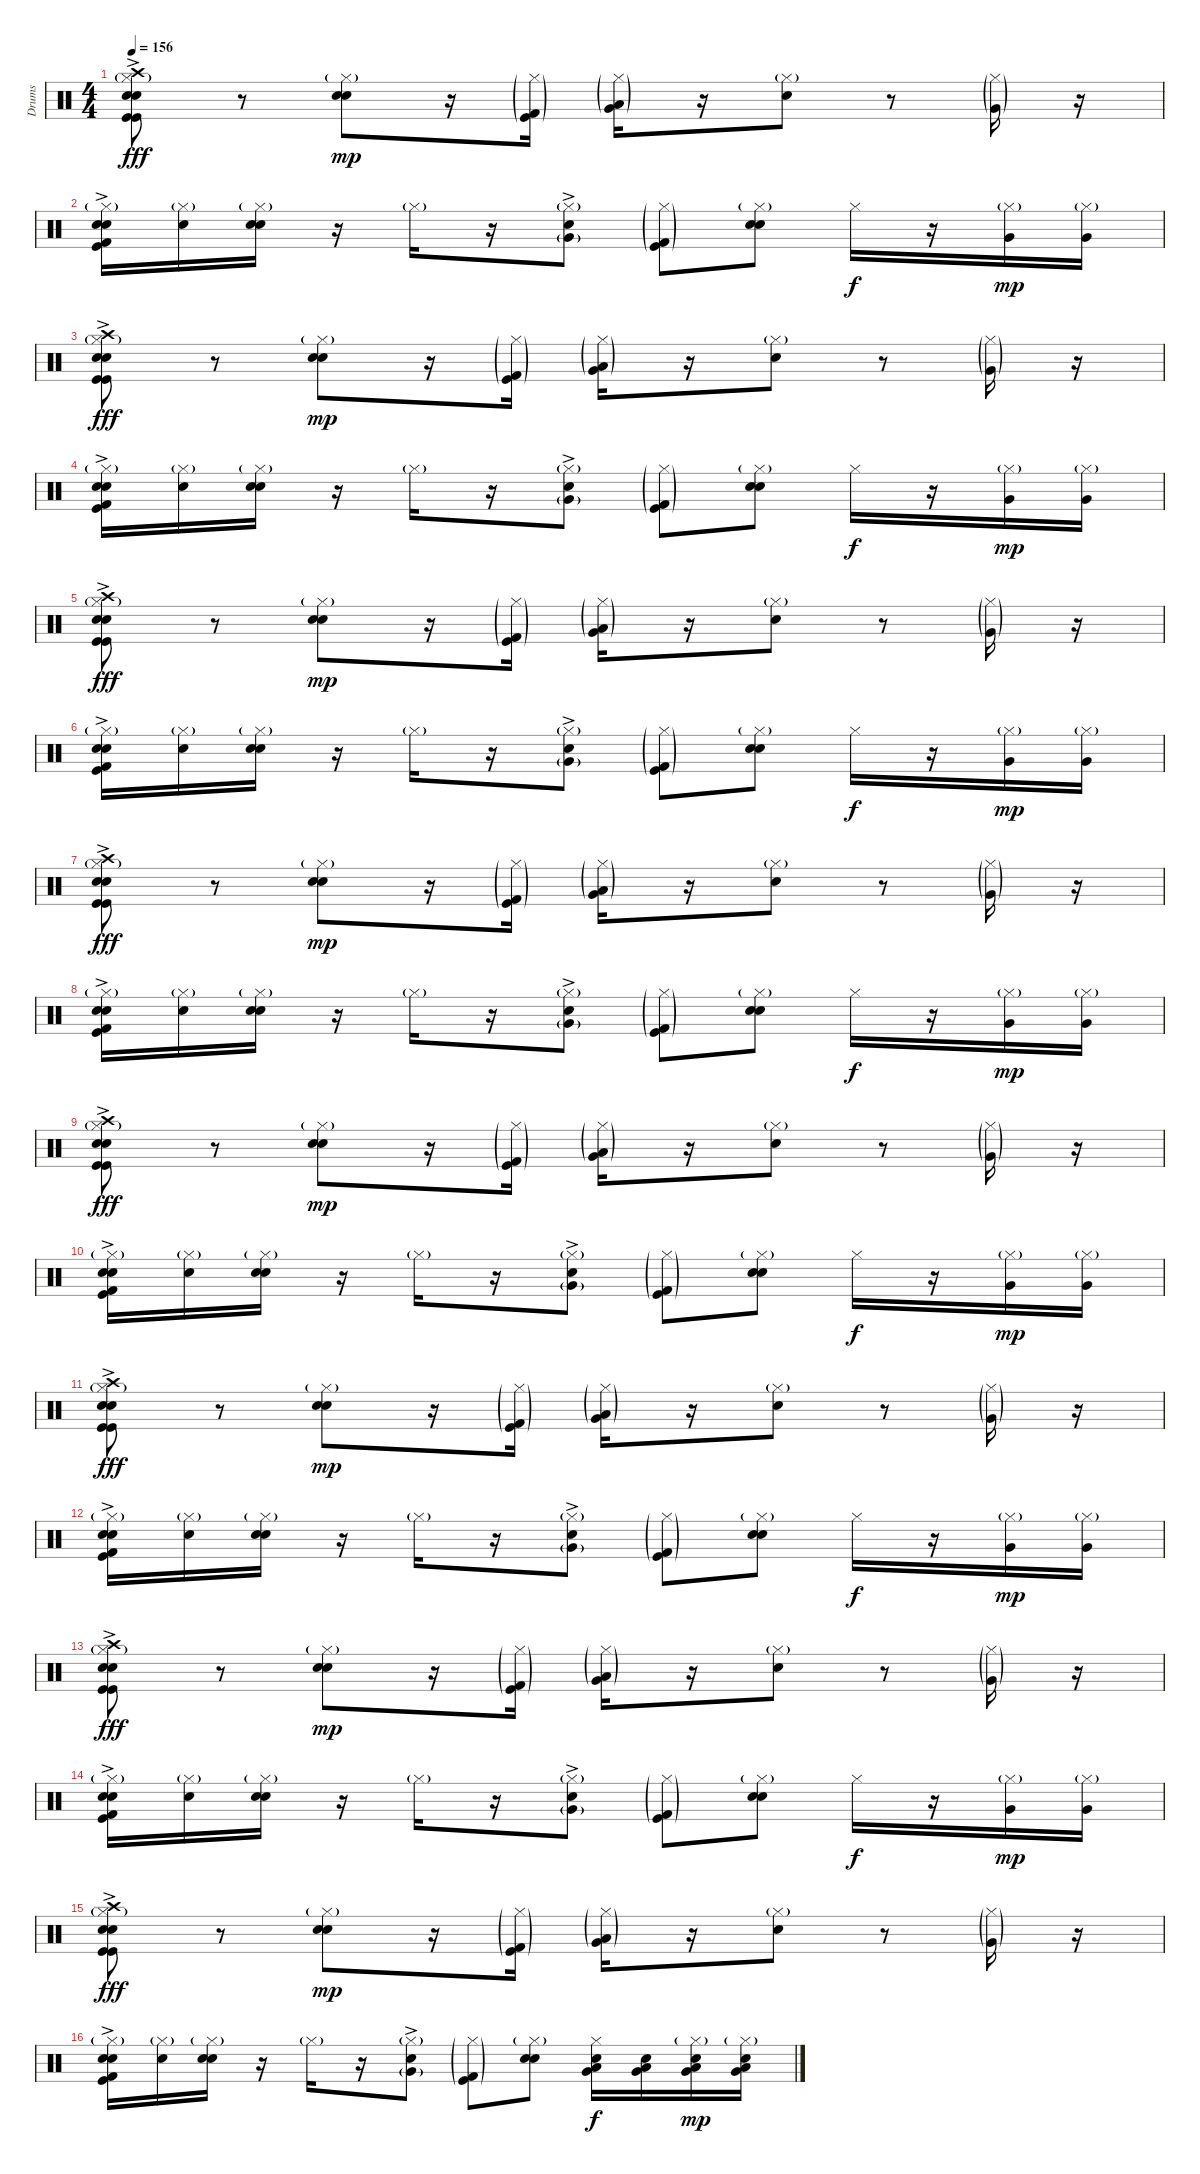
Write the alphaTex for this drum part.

\track ("Drums" "Drums") {instrument percussion}
\staff {score}
\articulation defaults
\ts (4 4)
\tempo 156
\clef neutral
\ks c
("Hi-Hat (closed)"{g} "Electric Snare (hit)"{ac} "Kick (hit)"{ac} "Kick (hit)"{ac} "Electric Snare (hit)"{ac} "Crash high (hit)"{ac}).8{dy fff volume 13} r.8 ("Electric Snare (hit)" "Electric Snare (hit)" "Hi-Hat (closed)"{g}).8{dy mp} r.16 ("Hi-Hat (closed)"{g} "Kick (hit)"{g} "Kick (hit) 2"{g}).16 ("Very Low Tom (hit)"{g} "Low Tom (hit)"{g} "Hi-Hat (closed)"{g}).16 r.16 ("Electric Snare (hit)" "Hi-Hat (closed)"{g}).8 r.8 ("Very Low Tom (hit)"{g} "Hi-Hat (closed)"{g}).16 r.16 |
("Electric Snare (hit)"{ac} "Electric Snare (hit)"{ac} "Kick (hit) 2"{ac} "Kick (hit)"{ac} "Hi-Hat (closed)"{g}).16{volume 13} ("Electric Snare (hit)" "Hi-Hat (closed)"{g}).16 ("Electric Snare (hit)" "Electric Snare (hit)" "Hi-Hat (closed)"{g}).16 r.16 "Hi-Hat (closed)"{g}.16 r.16 ("Electric Snare (hit)"{ac} "Very Low Tom (hit)"{g} "Hi-Hat (closed)"{g}).8 ("Hi-Hat (closed)"{g} "Kick (hit) 2"{g} "Kick (hit)"{g}).8 ("Electric Snare (hit)" "Electric Snare (hit)" "Hi-Hat (closed)"{g}).8 "Hi-Hat (closed)".16{dy f} r.16 ("Very Low Tom (hit)" "Hi-Hat (closed)"{g}).16{dy mp} ("Very Low Tom (hit)" "Hi-Hat (closed)"{g}).16 |
("Hi-Hat (closed)"{g} "Electric Snare (hit)"{ac} "Kick (hit)"{ac} "Kick (hit)"{ac} "Electric Snare (hit)"{ac} "Crash high (hit)"{ac}).8{dy fff volume 13} r.8 ("Electric Snare (hit)" "Electric Snare (hit)" "Hi-Hat (closed)"{g}).8{dy mp} r.16 ("Hi-Hat (closed)"{g} "Kick (hit)"{g} "Kick (hit) 2"{g}).16 ("Very Low Tom (hit)"{g} "Low Tom (hit)"{g} "Hi-Hat (closed)"{g}).16 r.16 ("Electric Snare (hit)" "Hi-Hat (closed)"{g}).8 r.8 ("Very Low Tom (hit)"{g} "Hi-Hat (closed)"{g}).16 r.16 |
("Electric Snare (hit)"{ac} "Electric Snare (hit)"{ac} "Kick (hit) 2"{ac} "Kick (hit)"{ac} "Hi-Hat (closed)"{g}).16{volume 13} ("Electric Snare (hit)" "Hi-Hat (closed)"{g}).16 ("Electric Snare (hit)" "Electric Snare (hit)" "Hi-Hat (closed)"{g}).16 r.16 "Hi-Hat (closed)"{g}.16 r.16 ("Electric Snare (hit)"{ac} "Very Low Tom (hit)"{g} "Hi-Hat (closed)"{g}).8 ("Hi-Hat (closed)"{g} "Kick (hit) 2"{g} "Kick (hit)"{g}).8 ("Electric Snare (hit)" "Electric Snare (hit)" "Hi-Hat (closed)"{g}).8 "Hi-Hat (closed)".16{dy f} r.16 ("Very Low Tom (hit)" "Hi-Hat (closed)"{g}).16{dy mp} ("Very Low Tom (hit)" "Hi-Hat (closed)"{g}).16 |
("Hi-Hat (closed)"{g} "Electric Snare (hit)"{ac} "Kick (hit)"{ac} "Kick (hit)"{ac} "Electric Snare (hit)"{ac} "Crash high (hit)"{ac}).8{dy fff volume 13} r.8 ("Electric Snare (hit)" "Electric Snare (hit)" "Hi-Hat (closed)"{g}).8{dy mp} r.16 ("Hi-Hat (closed)"{g} "Kick (hit)"{g} "Kick (hit) 2"{g}).16 ("Very Low Tom (hit)"{g} "Low Tom (hit)"{g} "Hi-Hat (closed)"{g}).16 r.16 ("Electric Snare (hit)" "Hi-Hat (closed)"{g}).8 r.8 ("Very Low Tom (hit)"{g} "Hi-Hat (closed)"{g}).16 r.16 |
("Electric Snare (hit)"{ac} "Electric Snare (hit)"{ac} "Kick (hit) 2"{ac} "Kick (hit)"{ac} "Hi-Hat (closed)"{g}).16{volume 13} ("Electric Snare (hit)" "Hi-Hat (closed)"{g}).16 ("Electric Snare (hit)" "Electric Snare (hit)" "Hi-Hat (closed)"{g}).16 r.16 "Hi-Hat (closed)"{g}.16 r.16 ("Electric Snare (hit)"{ac} "Very Low Tom (hit)"{g} "Hi-Hat (closed)"{g}).8 ("Hi-Hat (closed)"{g} "Kick (hit) 2"{g} "Kick (hit)"{g}).8 ("Electric Snare (hit)" "Electric Snare (hit)" "Hi-Hat (closed)"{g}).8 "Hi-Hat (closed)".16{dy f} r.16 ("Very Low Tom (hit)" "Hi-Hat (closed)"{g}).16{dy mp} ("Very Low Tom (hit)" "Hi-Hat (closed)"{g}).16 |
("Hi-Hat (closed)"{g} "Electric Snare (hit)"{ac} "Kick (hit)"{ac} "Kick (hit)"{ac} "Electric Snare (hit)"{ac} "Crash high (hit)"{ac}).8{dy fff volume 13} r.8 ("Electric Snare (hit)" "Electric Snare (hit)" "Hi-Hat (closed)"{g}).8{dy mp} r.16 ("Hi-Hat (closed)"{g} "Kick (hit)"{g} "Kick (hit) 2"{g}).16 ("Very Low Tom (hit)"{g} "Low Tom (hit)"{g} "Hi-Hat (closed)"{g}).16 r.16 ("Electric Snare (hit)" "Hi-Hat (closed)"{g}).8 r.8 ("Very Low Tom (hit)"{g} "Hi-Hat (closed)"{g}).16 r.16 |
("Electric Snare (hit)"{ac} "Electric Snare (hit)"{ac} "Kick (hit) 2"{ac} "Kick (hit)"{ac} "Hi-Hat (closed)"{g}).16{volume 13} ("Electric Snare (hit)" "Hi-Hat (closed)"{g}).16 ("Electric Snare (hit)" "Electric Snare (hit)" "Hi-Hat (closed)"{g}).16 r.16 "Hi-Hat (closed)"{g}.16 r.16 ("Electric Snare (hit)"{ac} "Very Low Tom (hit)"{g} "Hi-Hat (closed)"{g}).8 ("Hi-Hat (closed)"{g} "Kick (hit) 2"{g} "Kick (hit)"{g}).8 ("Electric Snare (hit)" "Electric Snare (hit)" "Hi-Hat (closed)"{g}).8 "Hi-Hat (closed)".16{dy f} r.16 ("Very Low Tom (hit)" "Hi-Hat (closed)"{g}).16{dy mp} ("Very Low Tom (hit)" "Hi-Hat (closed)"{g}).16 |
("Hi-Hat (closed)"{g} "Electric Snare (hit)"{ac} "Kick (hit)"{ac} "Kick (hit)"{ac} "Electric Snare (hit)"{ac} "Crash high (hit)"{ac}).8{dy fff volume 13} r.8 ("Electric Snare (hit)" "Electric Snare (hit)" "Hi-Hat (closed)"{g}).8{dy mp} r.16 ("Hi-Hat (closed)"{g} "Kick (hit)"{g} "Kick (hit) 2"{g}).16 ("Very Low Tom (hit)"{g} "Low Tom (hit)"{g} "Hi-Hat (closed)"{g}).16 r.16 ("Electric Snare (hit)" "Hi-Hat (closed)"{g}).8 r.8 ("Very Low Tom (hit)"{g} "Hi-Hat (closed)"{g}).16 r.16 |
("Electric Snare (hit)"{ac} "Electric Snare (hit)"{ac} "Kick (hit) 2"{ac} "Kick (hit)"{ac} "Hi-Hat (closed)"{g}).16{volume 13} ("Electric Snare (hit)" "Hi-Hat (closed)"{g}).16 ("Electric Snare (hit)" "Electric Snare (hit)" "Hi-Hat (closed)"{g}).16 r.16 "Hi-Hat (closed)"{g}.16 r.16 ("Electric Snare (hit)"{ac} "Very Low Tom (hit)"{g} "Hi-Hat (closed)"{g}).8 ("Hi-Hat (closed)"{g} "Kick (hit) 2"{g} "Kick (hit)"{g}).8 ("Electric Snare (hit)" "Electric Snare (hit)" "Hi-Hat (closed)"{g}).8 "Hi-Hat (closed)".16{dy f} r.16 ("Very Low Tom (hit)" "Hi-Hat (closed)"{g}).16{dy mp} ("Very Low Tom (hit)" "Hi-Hat (closed)"{g}).16 |
("Hi-Hat (closed)"{g} "Electric Snare (hit)"{ac} "Kick (hit)"{ac} "Kick (hit)"{ac} "Electric Snare (hit)"{ac} "Crash high (hit)"{ac}).8{dy fff volume 13} r.8 ("Electric Snare (hit)" "Electric Snare (hit)" "Hi-Hat (closed)"{g}).8{dy mp} r.16 ("Hi-Hat (closed)"{g} "Kick (hit)"{g} "Kick (hit) 2"{g}).16 ("Very Low Tom (hit)"{g} "Low Tom (hit)"{g} "Hi-Hat (closed)"{g}).16 r.16 ("Electric Snare (hit)" "Hi-Hat (closed)"{g}).8 r.8 ("Very Low Tom (hit)"{g} "Hi-Hat (closed)"{g}).16 r.16 |
("Electric Snare (hit)"{ac} "Electric Snare (hit)"{ac} "Kick (hit) 2"{ac} "Kick (hit)"{ac} "Hi-Hat (closed)"{g}).16{volume 13} ("Electric Snare (hit)" "Hi-Hat (closed)"{g}).16 ("Electric Snare (hit)" "Electric Snare (hit)" "Hi-Hat (closed)"{g}).16 r.16 "Hi-Hat (closed)"{g}.16 r.16 ("Electric Snare (hit)"{ac} "Very Low Tom (hit)"{g} "Hi-Hat (closed)"{g}).8 ("Hi-Hat (closed)"{g} "Kick (hit) 2"{g} "Kick (hit)"{g}).8 ("Electric Snare (hit)" "Electric Snare (hit)" "Hi-Hat (closed)"{g}).8 "Hi-Hat (closed)".16{dy f} r.16 ("Very Low Tom (hit)" "Hi-Hat (closed)"{g}).16{dy mp} ("Very Low Tom (hit)" "Hi-Hat (closed)"{g}).16 |
("Hi-Hat (closed)"{g} "Electric Snare (hit)"{ac} "Kick (hit)"{ac} "Kick (hit)"{ac} "Electric Snare (hit)"{ac} "Crash high (hit)"{ac}).8{dy fff volume 13} r.8 ("Electric Snare (hit)" "Electric Snare (hit)" "Hi-Hat (closed)"{g}).8{dy mp} r.16 ("Hi-Hat (closed)"{g} "Kick (hit)"{g} "Kick (hit) 2"{g}).16 ("Very Low Tom (hit)"{g} "Low Tom (hit)"{g} "Hi-Hat (closed)"{g}).16 r.16 ("Electric Snare (hit)" "Hi-Hat (closed)"{g}).8 r.8 ("Very Low Tom (hit)"{g} "Hi-Hat (closed)"{g}).16 r.16 |
("Electric Snare (hit)"{ac} "Electric Snare (hit)"{ac} "Kick (hit) 2"{ac} "Kick (hit)"{ac} "Hi-Hat (closed)"{g}).16{volume 13} ("Electric Snare (hit)" "Hi-Hat (closed)"{g}).16 ("Electric Snare (hit)" "Electric Snare (hit)" "Hi-Hat (closed)"{g}).16 r.16 "Hi-Hat (closed)"{g}.16 r.16 ("Electric Snare (hit)"{ac} "Very Low Tom (hit)"{g} "Hi-Hat (closed)"{g}).8 ("Hi-Hat (closed)"{g} "Kick (hit) 2"{g} "Kick (hit)"{g}).8 ("Electric Snare (hit)" "Electric Snare (hit)" "Hi-Hat (closed)"{g}).8 "Hi-Hat (closed)".16{dy f} r.16 ("Very Low Tom (hit)" "Hi-Hat (closed)"{g}).16{dy mp} ("Very Low Tom (hit)" "Hi-Hat (closed)"{g}).16 |
("Hi-Hat (closed)"{g} "Electric Snare (hit)"{ac} "Kick (hit)"{ac} "Kick (hit)"{ac} "Electric Snare (hit)"{ac} "Crash high (hit)"{ac}).8{dy fff volume 13} r.8 ("Electric Snare (hit)" "Electric Snare (hit)" "Hi-Hat (closed)"{g}).8{dy mp} r.16 ("Hi-Hat (closed)"{g} "Kick (hit)"{g} "Kick (hit) 2"{g}).16 ("Very Low Tom (hit)"{g} "Low Tom (hit)"{g} "Hi-Hat (closed)"{g}).16 r.16 ("Electric Snare (hit)" "Hi-Hat (closed)"{g}).8 r.8 ("Very Low Tom (hit)"{g} "Hi-Hat (closed)"{g}).16 r.16 |
("Electric Snare (hit)"{ac} "Electric Snare (hit)"{ac} "Kick (hit) 2"{ac} "Kick (hit)"{ac} "Hi-Hat (closed)"{g}).16{volume 13} ("Electric Snare (hit)" "Hi-Hat (closed)"{g}).16 ("Electric Snare (hit)" "Electric Snare (hit)" "Hi-Hat (closed)"{g}).16 r.16 "Hi-Hat (closed)"{g}.16 r.16 ("Electric Snare (hit)"{ac} "Very Low Tom (hit)"{g} "Hi-Hat (closed)"{g}).8 ("Hi-Hat (closed)"{g} "Kick (hit) 2"{g} "Kick (hit)"{g}).8 ("Electric Snare (hit)" "Electric Snare (hit)" "Hi-Hat (closed)"{g}).8 ("Very Low Tom (hit)" "Low Tom (hit)" "Hi-Hat (closed)" "Electric Snare (hit)").16{dy f} ("Very Low Tom (hit)" "Low Tom (hit)" "Electric Snare (hit)").16 ("Very Low Tom (hit)" "Low Tom (hit)" "Hi-Hat (closed)"{g} "Electric Snare (hit)").16{dy mp} ("Very Low Tom (hit)" "Low Tom (hit)" "Hi-Hat (closed)"{g} "Electric Snare (hit)").16
